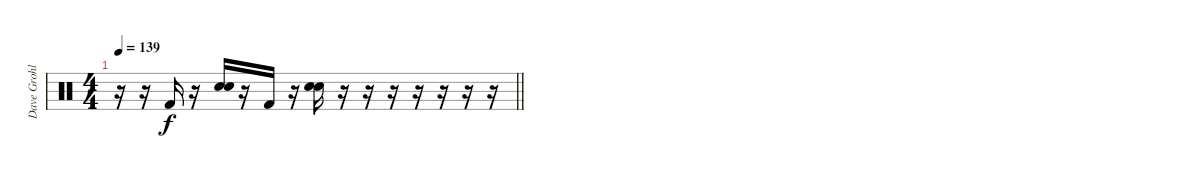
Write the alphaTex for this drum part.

\track ("Dave Grohl" "Dave Grohl") {instrument percussion}
\staff {score}
\articulation defaults
\ts (4 4)
\tempo 139
\clef neutral
\barLineRight lightlight
\ks c
r.16{dy f} r.16 "Kick (hit) 2".16 r.16 ("Electric Snare (hit)" "Electric Snare (hit)").16 r.16 "Kick (hit) 2".16 r.16 ("Electric Snare (hit)" "Electric Snare (hit)").16 r.16 r.16 r.16 r.16 r.16 r.16 r.16
